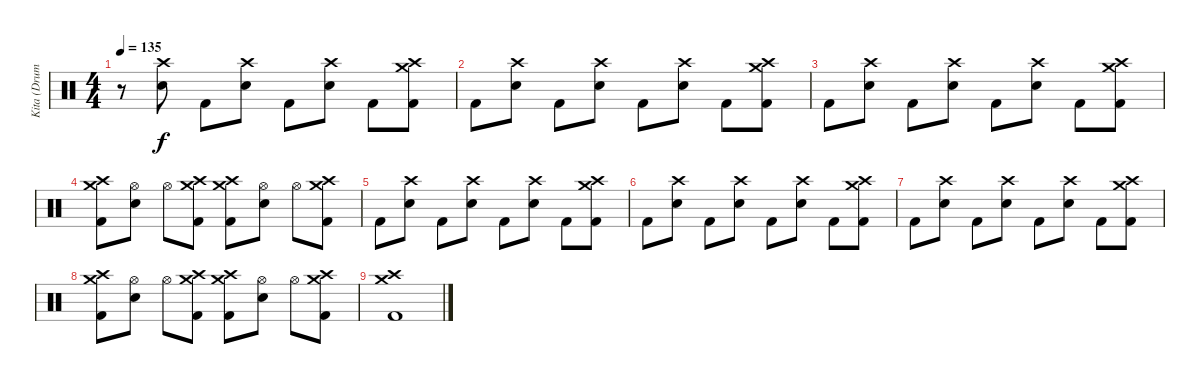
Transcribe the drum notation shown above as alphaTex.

\track ("Kita (Drums)" "Kita (Drum") {instrument percussion}
\staff {score}
\articulation defaults
\ts (4 4)
\tempo 135
\clef neutral
\ks c
r.8{dy f} ("Crash high (hit)" "Electric Snare (hit)").8 "Kick (hit) 2".8 ("Crash high (hit)" "Electric Snare (hit)").8 "Kick (hit) 2".8 ("Crash high (hit)" "Electric Snare (hit)").8 "Kick (hit) 2".8 ("Crash medium (hit)" "Crash high (hit)" "Kick (hit) 2").8 |
"Kick (hit) 2".8 ("Crash high (hit)" "Electric Snare (hit)").8 "Kick (hit) 2".8 ("Crash high (hit)" "Electric Snare (hit)").8 "Kick (hit) 2".8 ("Crash high (hit)" "Electric Snare (hit)").8 "Kick (hit) 2".8 ("Crash medium (hit)" "Crash high (hit)" "Kick (hit) 2").8 |
"Kick (hit) 2".8 ("Crash high (hit)" "Electric Snare (hit)").8 "Kick (hit) 2".8 ("Crash high (hit)" "Electric Snare (hit)").8 "Kick (hit) 2".8 ("Crash high (hit)" "Electric Snare (hit)").8 "Kick (hit) 2".8 ("Crash medium (hit)" "Crash high (hit)" "Kick (hit) 2").8 |
("Crash medium (hit)" "Crash high (hit)" "Kick (hit) 2").8 ("Hi-Hat (open)" "Electric Snare (hit)").8 "Hi-Hat (open)".8 ("Crash medium (hit)" "Crash high (hit)" "Kick (hit) 2").8 ("Crash medium (hit)" "Crash high (hit)" "Kick (hit) 2").8 ("Hi-Hat (open)" "Electric Snare (hit)").8 "Hi-Hat (open)".8 ("Crash medium (hit)" "Crash high (hit)" "Kick (hit) 2").8 |
"Kick (hit) 2".8 ("Crash high (hit)" "Electric Snare (hit)").8 "Kick (hit) 2".8 ("Crash high (hit)" "Electric Snare (hit)").8 "Kick (hit) 2".8 ("Crash high (hit)" "Electric Snare (hit)").8 "Kick (hit) 2".8 ("Crash medium (hit)" "Crash high (hit)" "Kick (hit) 2").8 |
"Kick (hit) 2".8 ("Crash high (hit)" "Electric Snare (hit)").8 "Kick (hit) 2".8 ("Crash high (hit)" "Electric Snare (hit)").8 "Kick (hit) 2".8 ("Crash high (hit)" "Electric Snare (hit)").8 "Kick (hit) 2".8 ("Crash medium (hit)" "Crash high (hit)" "Kick (hit) 2").8 |
"Kick (hit) 2".8 ("Crash high (hit)" "Electric Snare (hit)").8 "Kick (hit) 2".8 ("Crash high (hit)" "Electric Snare (hit)").8 "Kick (hit) 2".8 ("Crash high (hit)" "Electric Snare (hit)").8 "Kick (hit) 2".8 ("Crash medium (hit)" "Crash high (hit)" "Kick (hit) 2").8 |
("Crash medium (hit)" "Crash high (hit)" "Kick (hit) 2").8 ("Hi-Hat (open)" "Electric Snare (hit)").8 "Hi-Hat (open)".8 ("Crash medium (hit)" "Crash high (hit)" "Kick (hit) 2").8 ("Crash medium (hit)" "Crash high (hit)" "Kick (hit) 2").8 ("Hi-Hat (open)" "Electric Snare (hit)").8 "Hi-Hat (open)".8 ("Crash medium (hit)" "Crash high (hit)" "Kick (hit) 2").8 |
("Crash medium (hit)" "Crash high (hit)" "Kick (hit) 2").1
